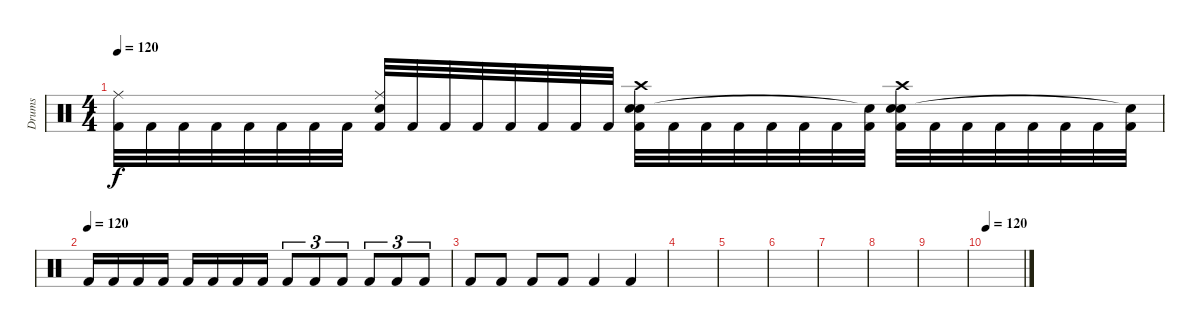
\track ("Drums" "Drums") {instrument percussion}
\staff {score}
\articulation defaults
\ts (4 4)
\tempo 120
\clef neutral
\ks c
("Kick (hit) 2" "Ride (middle)").32{dy f} "Kick (hit) 2".32 "Kick (hit) 2".32 "Kick (hit) 2".32 "Kick (hit) 2".32 "Kick (hit) 2".32 "Kick (hit) 2".32 "Kick (hit) 2".32 ("Kick (hit) 2" "Snare (hit) 2" "Ride (middle)").32 "Kick (hit) 2".32 "Kick (hit) 2".32 "Kick (hit) 2".32 "Kick (hit) 2".32 "Kick (hit) 2".32 "Kick (hit) 2".32 "Kick (hit) 2".32 ("Kick (hit) 2" "Snare (hit) 2" "Snare (hit) 2" "Crash high (hit)").32 "Kick (hit) 2".32 "Kick (hit) 2".32 "Kick (hit) 2".32 "Kick (hit) 2".32 "Kick (hit) 2".32 "Kick (hit) 2".32 ("Kick (hit) 2" "Snare (hit)"{t}).32 ("Kick (hit) 2" "Snare (hit) 2" "Snare (hit) 2" "Crash high (hit)").32 "Kick (hit) 2".32 "Kick (hit) 2".32 "Kick (hit) 2".32 "Kick (hit) 2".32 "Kick (hit) 2".32 "Kick (hit) 2".32 ("Kick (hit) 2" "Snare (hit)"{t}).32 |
\tempo (120)
"Kick (hit) 2".16 "Kick (hit) 2".16 "Kick (hit) 2".16 "Kick (hit) 2".16 "Kick (hit) 2".16 "Kick (hit) 2".16 "Kick (hit) 2".16 "Kick (hit) 2".16 "Kick (hit) 2".8{tu (3 2)} "Kick (hit) 2".8{tu (3 2)} "Kick (hit) 2".8{tu (3 2)} "Kick (hit) 2".8{tu (3 2)} "Kick (hit) 2".8{tu (3 2)} "Kick (hit) 2".8{tu (3 2)} |
"Kick (hit) 2".8 "Kick (hit) 2".8 "Kick (hit) 2".8 "Kick (hit) 2".8 "Kick (hit) 2".4 "Kick (hit) 2".4 |
|
|
|
|
|
|
\tempo 120
